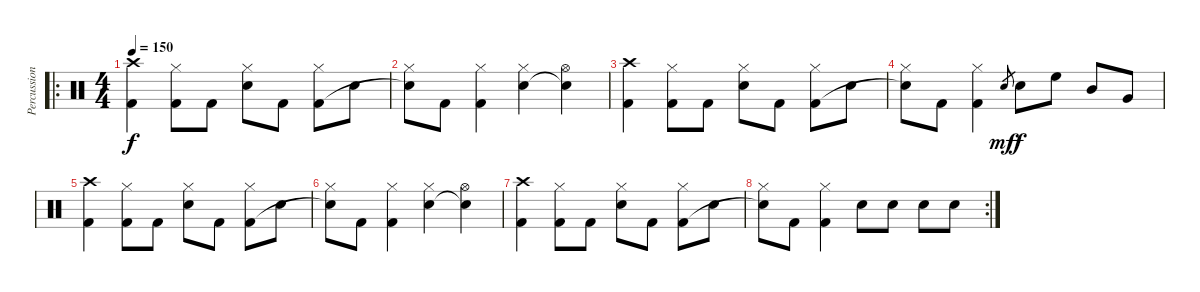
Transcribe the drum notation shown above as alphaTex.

\track ("Percussion" "Percussion") {instrument percussion}
\staff {score}
\articulation defaults
\ro
\ts (4 4)
\tempo 150
\clef neutral
\ks c
("Crash high (hit)" "Kick (hit) 2").4{dy f} ("Hi-Hat (closed)" "Kick (hit) 2").8 "Kick (hit) 2".8 ("Hi-Hat (closed)" "Snare (hit) 2").8 "Kick (hit) 2".8 ("Hi-Hat (closed)" "Kick (hit) 2").8 "Snare (hit) 2".8 |
("Hi-Hat (closed)" "Snare (hit) 2"{t}).8 "Kick (hit) 2".8 ("Hi-Hat (closed)" "Kick (hit) 2").4 ("Hi-Hat (closed)" "Snare (hit) 2").4 ("Hi-Hat (open)" "Snare (hit) 2"{t}).4 |
("Crash high (hit)" "Kick (hit) 2").4 ("Hi-Hat (closed)" "Kick (hit) 2").8 "Kick (hit) 2".8 ("Hi-Hat (closed)" "Snare (hit) 2").8 "Kick (hit) 2".8 ("Hi-Hat (closed)" "Kick (hit) 2").8 "Snare (hit) 2".8 |
("Hi-Hat (closed)" "Snare (hit) 2"{t}).8 "Kick (hit) 2".8 ("Hi-Hat (closed)" "Kick (hit) 2").4 "Snare (hit) 2"{h}.8{gr dy mf} "Snare (hit) 2".8{dy f} "High Floor Tom (hit)".8 "Mid Tom (hit)".8 "Very Low Tom (hit)".8 |
("Crash high (hit)" "Kick (hit) 2").4 ("Hi-Hat (closed)" "Kick (hit) 2").8 "Kick (hit) 2".8 ("Hi-Hat (closed)" "Snare (hit) 2").8 "Kick (hit) 2".8 ("Hi-Hat (closed)" "Kick (hit) 2").8 "Snare (hit) 2".8 |
("Hi-Hat (closed)" "Snare (hit) 2"{t}).8 "Kick (hit) 2".8 ("Hi-Hat (closed)" "Kick (hit) 2").4 ("Hi-Hat (closed)" "Snare (hit) 2").4 ("Hi-Hat (open)" "Snare (hit) 2"{t}).4 |
("Crash high (hit)" "Kick (hit) 2").4 ("Hi-Hat (closed)" "Kick (hit) 2").8 "Kick (hit) 2".8 ("Hi-Hat (closed)" "Snare (hit) 2").8 "Kick (hit) 2".8 ("Hi-Hat (closed)" "Kick (hit) 2").8 "Snare (hit) 2".8 |
\rc 2
("Hi-Hat (closed)" "Snare (hit) 2"{t}).8 "Kick (hit) 2".8 ("Hi-Hat (closed)" "Kick (hit) 2").4 "Snare (hit) 2".8 "Snare (hit) 2".8 "Snare (hit) 2".8 "Snare (hit) 2".8
